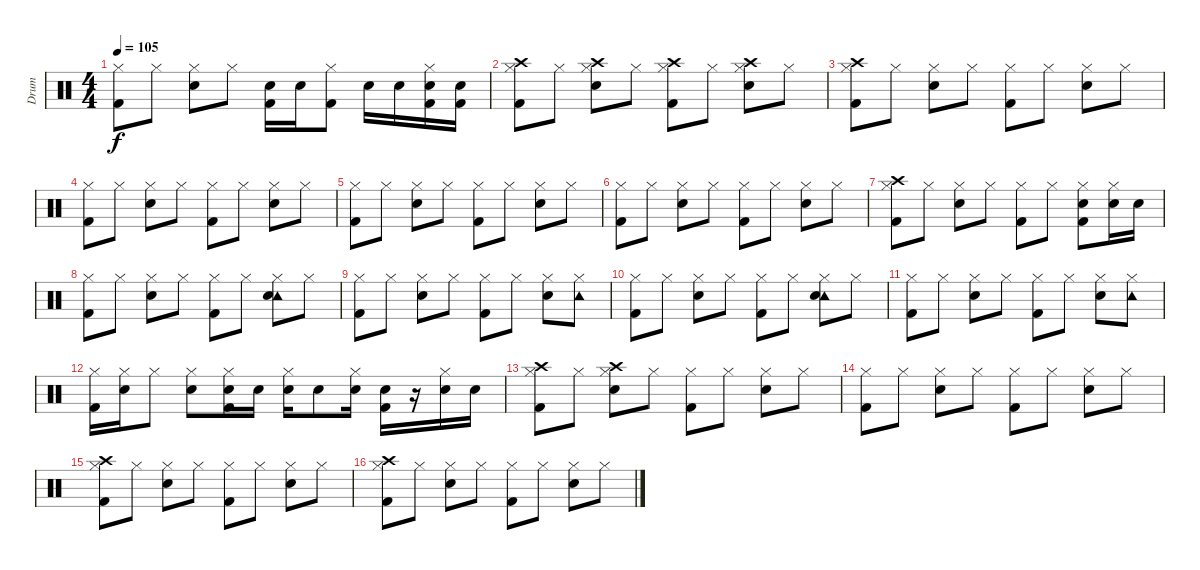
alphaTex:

\track ("Drum" "Drum") {instrument percussion}
\staff {score}
\articulation defaults
\ts (4 4)
\tempo 105
\clef neutral
\ks c
("Hi-Hat (closed)" "Kick (hit) 2").8{dy f} "Hi-Hat (closed)".8 ("Electric Snare (hit)" "Hi-Hat (closed)").8 "Hi-Hat (closed)".8 ("Electric Snare (hit)" "Kick (hit) 2").16 "Electric Snare (hit)".16 ("Hi-Hat (closed)" "Kick (hit) 2").8 "Electric Snare (hit)".16 "Electric Snare (hit)".16 ("Electric Snare (hit)" "Hi-Hat (closed)" "Kick (hit) 2").16 ("Electric Snare (hit)" "Kick (hit) 2").16 |
("Crash high (hit)" "Hi-Hat (closed)" "Kick (hit) 2").8 "Hi-Hat (closed)".8 ("Crash high (hit)" "Electric Snare (hit)" "Hi-Hat (closed)").8 "Hi-Hat (closed)".8 ("Crash high (hit)" "Hi-Hat (closed)" "Kick (hit) 2").8 "Hi-Hat (closed)".8 ("Crash high (hit)" "Electric Snare (hit)" "Hi-Hat (closed)").8 "Hi-Hat (closed)".8 |
("Crash high (hit)" "Hi-Hat (closed)" "Kick (hit) 2").8 "Hi-Hat (closed)".8 ("Electric Snare (hit)" "Hi-Hat (closed)").8 "Hi-Hat (closed)".8 ("Hi-Hat (closed)" "Kick (hit) 2").8 "Hi-Hat (closed)".8 ("Electric Snare (hit)" "Hi-Hat (closed)").8 "Hi-Hat (closed)".8 |
("Hi-Hat (closed)" "Kick (hit) 2").8 "Hi-Hat (closed)".8 ("Electric Snare (hit)" "Hi-Hat (closed)").8 "Hi-Hat (closed)".8 ("Hi-Hat (closed)" "Kick (hit) 2").8 "Hi-Hat (closed)".8 ("Electric Snare (hit)" "Hi-Hat (closed)").8 "Hi-Hat (closed)".8 |
("Hi-Hat (closed)" "Kick (hit) 2").8 "Hi-Hat (closed)".8 ("Electric Snare (hit)" "Hi-Hat (closed)").8 "Hi-Hat (closed)".8 ("Hi-Hat (closed)" "Kick (hit) 2").8 "Hi-Hat (closed)".8 ("Electric Snare (hit)" "Hi-Hat (closed)").8 "Hi-Hat (closed)".8 |
("Hi-Hat (closed)" "Kick (hit) 2").8 "Hi-Hat (closed)".8 ("Electric Snare (hit)" "Hi-Hat (closed)").8 "Hi-Hat (closed)".8 ("Hi-Hat (closed)" "Kick (hit) 2").8 "Hi-Hat (closed)".8 ("Electric Snare (hit)" "Hi-Hat (closed)").8 "Hi-Hat (closed)".8 |
("Crash high (hit)" "Hi-Hat (closed)" "Kick (hit) 2").8 "Hi-Hat (closed)".8 ("Electric Snare (hit)" "Hi-Hat (closed)").8 "Hi-Hat (closed)".8 ("Hi-Hat (closed)" "Kick (hit) 2").8 "Hi-Hat (closed)".8 ("Electric Snare (hit)" "Hi-Hat (closed)" "Kick (hit) 2").8 ("Electric Snare (hit)" "Hi-Hat (closed)").16 "Electric Snare (hit)".16 |
("Hi-Hat (closed)" "Kick (hit) 2").8 "Hi-Hat (closed)".8 ("Electric Snare (hit)" "Hi-Hat (closed)").8 "Hi-Hat (closed)".8 ("Hi-Hat (closed)" "Kick (hit) 2").8 "Hi-Hat (closed)".8 ("Tambourine (hit)" "Electric Snare (hit)" "Hi-Hat (closed)").8 "Hi-Hat (closed)".8 |
("Hi-Hat (closed)" "Kick (hit) 2").8 "Hi-Hat (closed)".8 ("Electric Snare (hit)" "Hi-Hat (closed)").8 "Hi-Hat (closed)".8 ("Hi-Hat (closed)" "Kick (hit) 2").8 "Hi-Hat (closed)".8 ("Electric Snare (hit)" "Hi-Hat (closed)").8 ("Tambourine (hit)" "Hi-Hat (closed)").8 |
("Hi-Hat (closed)" "Kick (hit) 2").8 "Hi-Hat (closed)".8 ("Electric Snare (hit)" "Hi-Hat (closed)").8 "Hi-Hat (closed)".8 ("Hi-Hat (closed)" "Kick (hit) 2").8 "Hi-Hat (closed)".8 ("Tambourine (hit)" "Electric Snare (hit)" "Hi-Hat (closed)").8 "Hi-Hat (closed)".8 |
("Hi-Hat (closed)" "Kick (hit) 2").8 "Hi-Hat (closed)".8 ("Electric Snare (hit)" "Hi-Hat (closed)").8 "Hi-Hat (closed)".8 ("Hi-Hat (closed)" "Kick (hit) 2").8 "Hi-Hat (closed)".8 ("Electric Snare (hit)" "Hi-Hat (closed)").8 ("Tambourine (hit)" "Hi-Hat (closed)").8 |
("Hi-Hat (closed)" "Kick (hit) 2").16 ("Electric Snare (hit)" "Hi-Hat (closed)").16 "Hi-Hat (closed)".8 ("Electric Snare (hit)" "Hi-Hat (closed)").8 ("Electric Snare (hit)" "Hi-Hat (closed)" "Kick (hit) 2").16 "Electric Snare (hit)".16 ("Electric Snare (hit)" "Hi-Hat (closed)").16 "Electric Snare (hit)".8 ("Electric Snare (hit)" "Hi-Hat (closed)").16 ("Electric Snare (hit)" "Kick (hit) 2").16 r.16 ("Electric Snare (hit)" "Hi-Hat (closed)").16 "Electric Snare (hit)".16 |
("Crash high (hit)" "Hi-Hat (closed)" "Kick (hit) 2").8 "Hi-Hat (closed)".8 ("Crash high (hit)" "Electric Snare (hit)" "Hi-Hat (closed)").8 "Hi-Hat (closed)".8 ("Hi-Hat (closed)" "Kick (hit) 2").8 "Hi-Hat (closed)".8 ("Electric Snare (hit)" "Hi-Hat (closed)").8 "Hi-Hat (closed)".8 |
("Hi-Hat (closed)" "Kick (hit) 2").8 "Hi-Hat (closed)".8 ("Electric Snare (hit)" "Hi-Hat (closed)").8 "Hi-Hat (closed)".8 ("Hi-Hat (closed)" "Kick (hit) 2").8 "Hi-Hat (closed)".8 ("Electric Snare (hit)" "Hi-Hat (closed)").8 "Hi-Hat (closed)".8 |
("Crash high (hit)" "Hi-Hat (closed)" "Kick (hit) 2").8 "Hi-Hat (closed)".8 ("Electric Snare (hit)" "Hi-Hat (closed)").8 "Hi-Hat (closed)".8 ("Hi-Hat (closed)" "Kick (hit) 2").8 "Hi-Hat (closed)".8 ("Electric Snare (hit)" "Hi-Hat (closed)").8 "Hi-Hat (closed)".8 |
("Crash high (hit)" "Hi-Hat (closed)" "Kick (hit) 2").8 "Hi-Hat (closed)".8 ("Electric Snare (hit)" "Hi-Hat (closed)").8 "Hi-Hat (closed)".8 ("Hi-Hat (closed)" "Kick (hit) 2").8 "Hi-Hat (closed)".8 ("Electric Snare (hit)" "Hi-Hat (closed)").8 "Hi-Hat (closed)".8
